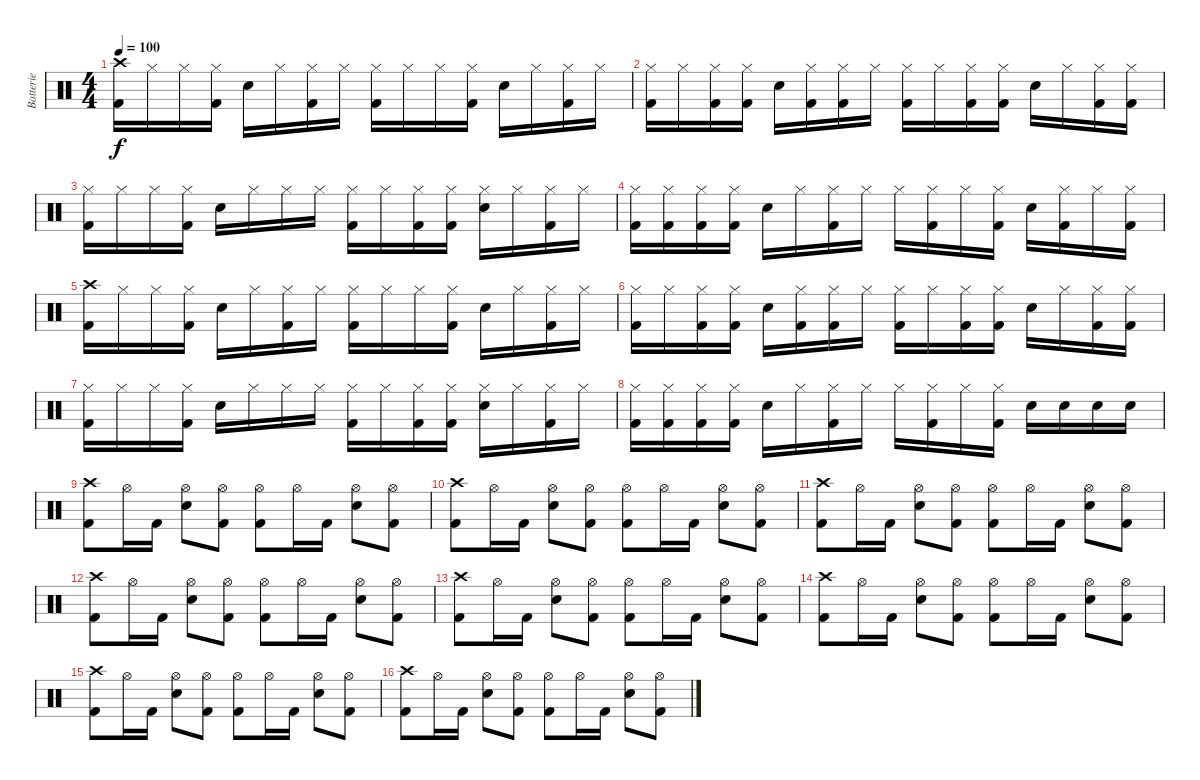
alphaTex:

\track ("Batterie" "Batterie") {instrument percussion}
\staff {score}
\articulation defaults
\ts (4 4)
\tempo 100
\clef neutral
\ks c
("Crash high (hit)" "Kick (hit) 2").16{dy f} "Hi-Hat (closed)".16 "Hi-Hat (closed)".16 ("Hi-Hat (closed)" "Kick (hit) 2").16 "Snare (hit) 2".16 "Hi-Hat (closed)".16 ("Hi-Hat (closed)" "Kick (hit) 2").16 "Hi-Hat (closed)".16 ("Hi-Hat (closed)" "Kick (hit) 2").16 "Hi-Hat (closed)".16 "Hi-Hat (closed)".16 ("Hi-Hat (closed)" "Kick (hit) 2").16 "Snare (hit) 2".16 "Hi-Hat (closed)".16 ("Hi-Hat (closed)" "Kick (hit) 2").16 "Hi-Hat (closed)".16 |
("Hi-Hat (closed)" "Kick (hit) 2").16 "Hi-Hat (closed)".16 ("Hi-Hat (closed)" "Kick (hit) 2").16 ("Hi-Hat (closed)" "Kick (hit) 2").16 "Snare (hit) 2".16 ("Hi-Hat (closed)" "Kick (hit) 2").16 ("Hi-Hat (closed)" "Kick (hit) 2").16 "Hi-Hat (closed)".16 ("Hi-Hat (closed)" "Kick (hit) 2").16 "Hi-Hat (closed)".16 ("Hi-Hat (closed)" "Kick (hit) 2").16 ("Hi-Hat (closed)" "Kick (hit) 2").16 "Snare (hit) 2".16 "Hi-Hat (closed)".16 ("Hi-Hat (closed)" "Kick (hit) 2").16 ("Hi-Hat (closed)" "Kick (hit) 2").16 |
("Hi-Hat (closed)" "Kick (hit) 2").16 "Hi-Hat (closed)".16 "Hi-Hat (closed)".16 ("Hi-Hat (closed)" "Kick (hit) 2").16 "Snare (hit) 2".16 "Hi-Hat (closed)".16 "Hi-Hat (closed)".16 "Hi-Hat (closed)".16 ("Hi-Hat (closed)" "Kick (hit) 2").16 "Hi-Hat (closed)".16 ("Hi-Hat (closed)" "Kick (hit) 2").16 ("Hi-Hat (closed)" "Kick (hit) 2").16 ("Hi-Hat (closed)" "Snare (hit) 2").16 "Hi-Hat (closed)".16 ("Hi-Hat (closed)" "Kick (hit) 2").16 "Hi-Hat (closed)".16 |
("Hi-Hat (closed)" "Kick (hit) 2").16 ("Hi-Hat (closed)" "Kick (hit) 2").16 ("Hi-Hat (closed)" "Kick (hit) 2").16 ("Hi-Hat (closed)" "Kick (hit) 2").16 "Snare (hit) 2".16 "Hi-Hat (closed)".16 ("Hi-Hat (closed)" "Kick (hit) 2").16 "Hi-Hat (closed)".16 "Hi-Hat (closed)".16 ("Hi-Hat (closed)" "Kick (hit) 2").16 "Hi-Hat (closed)".16 ("Hi-Hat (closed)" "Kick (hit) 2").16 "Snare (hit) 2".16 ("Hi-Hat (closed)" "Kick (hit) 2").16 "Hi-Hat (closed)".16 ("Hi-Hat (closed)" "Kick (hit) 2").16 |
("Crash high (hit)" "Kick (hit) 2").16 "Hi-Hat (closed)".16 "Hi-Hat (closed)".16 ("Hi-Hat (closed)" "Kick (hit) 2").16 "Snare (hit) 2".16 "Hi-Hat (closed)".16 ("Hi-Hat (closed)" "Kick (hit) 2").16 "Hi-Hat (closed)".16 ("Hi-Hat (closed)" "Kick (hit) 2").16 "Hi-Hat (closed)".16 "Hi-Hat (closed)".16 ("Hi-Hat (closed)" "Kick (hit) 2").16 "Snare (hit) 2".16 "Hi-Hat (closed)".16 ("Hi-Hat (closed)" "Kick (hit) 2").16 "Hi-Hat (closed)".16 |
("Hi-Hat (closed)" "Kick (hit) 2").16 "Hi-Hat (closed)".16 ("Hi-Hat (closed)" "Kick (hit) 2").16 ("Hi-Hat (closed)" "Kick (hit) 2").16 "Snare (hit) 2".16 ("Hi-Hat (closed)" "Kick (hit) 2").16 ("Hi-Hat (closed)" "Kick (hit) 2").16 "Hi-Hat (closed)".16 ("Hi-Hat (closed)" "Kick (hit) 2").16 "Hi-Hat (closed)".16 ("Hi-Hat (closed)" "Kick (hit) 2").16 ("Hi-Hat (closed)" "Kick (hit) 2").16 "Snare (hit) 2".16 "Hi-Hat (closed)".16 ("Hi-Hat (closed)" "Kick (hit) 2").16 ("Hi-Hat (closed)" "Kick (hit) 2").16 |
("Hi-Hat (closed)" "Kick (hit) 2").16 "Hi-Hat (closed)".16 "Hi-Hat (closed)".16 ("Hi-Hat (closed)" "Kick (hit) 2").16 "Snare (hit) 2".16 "Hi-Hat (closed)".16 "Hi-Hat (closed)".16 "Hi-Hat (closed)".16 ("Hi-Hat (closed)" "Kick (hit) 2").16 "Hi-Hat (closed)".16 ("Hi-Hat (closed)" "Kick (hit) 2").16 ("Hi-Hat (closed)" "Kick (hit) 2").16 ("Hi-Hat (closed)" "Snare (hit) 2").16 "Hi-Hat (closed)".16 ("Hi-Hat (closed)" "Kick (hit) 2").16 "Hi-Hat (closed)".16 |
("Hi-Hat (closed)" "Kick (hit) 2").16 ("Hi-Hat (closed)" "Kick (hit) 2").16 ("Hi-Hat (closed)" "Kick (hit) 2").16 ("Hi-Hat (closed)" "Kick (hit) 2").16 "Snare (hit) 2".16 "Hi-Hat (closed)".16 ("Hi-Hat (closed)" "Kick (hit) 2").16 "Hi-Hat (closed)".16 "Hi-Hat (closed)".16 ("Hi-Hat (closed)" "Kick (hit) 2").16 "Hi-Hat (closed)".16 ("Hi-Hat (closed)" "Kick (hit) 2").16 "Snare (hit) 2".16 "Snare (hit) 2".16 "Snare (hit) 2".16 "Snare (hit) 2".16 |
("Crash high (hit)" "Kick (hit) 2").8 "Hi-Hat (open)".16 "Kick (hit) 2".16 ("Hi-Hat (open)" "Snare (hit) 2").8 ("Hi-Hat (open)" "Kick (hit) 2").8 ("Hi-Hat (open)" "Kick (hit) 2").8 "Hi-Hat (open)".16 "Kick (hit) 2".16 ("Hi-Hat (open)" "Snare (hit) 2").8 ("Hi-Hat (open)" "Kick (hit) 2").8 |
("Crash high (hit)" "Kick (hit) 2").8 "Hi-Hat (open)".16 "Kick (hit) 2".16 ("Hi-Hat (open)" "Snare (hit) 2").8 ("Hi-Hat (open)" "Kick (hit) 2").8 ("Hi-Hat (open)" "Kick (hit) 2").8 "Hi-Hat (open)".16 "Kick (hit) 2".16 ("Hi-Hat (open)" "Snare (hit) 2").8 ("Hi-Hat (open)" "Kick (hit) 2").8 |
("Crash high (hit)" "Kick (hit) 2").8 "Hi-Hat (open)".16 "Kick (hit) 2".16 ("Hi-Hat (open)" "Snare (hit) 2").8 ("Hi-Hat (open)" "Kick (hit) 2").8 ("Hi-Hat (open)" "Kick (hit) 2").8 "Hi-Hat (open)".16 "Kick (hit) 2".16 ("Hi-Hat (open)" "Snare (hit) 2").8 ("Hi-Hat (open)" "Kick (hit) 2").8 |
("Crash high (hit)" "Kick (hit) 2").8 "Hi-Hat (open)".16 "Kick (hit) 2".16 ("Hi-Hat (open)" "Snare (hit) 2").8 ("Hi-Hat (open)" "Kick (hit) 2").8 ("Hi-Hat (open)" "Kick (hit) 2").8 "Hi-Hat (open)".16 "Kick (hit) 2".16 ("Hi-Hat (open)" "Snare (hit) 2").8 ("Hi-Hat (open)" "Kick (hit) 2").8 |
("Crash high (hit)" "Kick (hit) 2").8 "Hi-Hat (open)".16 "Kick (hit) 2".16 ("Hi-Hat (open)" "Snare (hit) 2").8 ("Hi-Hat (open)" "Kick (hit) 2").8 ("Hi-Hat (open)" "Kick (hit) 2").8 "Hi-Hat (open)".16 "Kick (hit) 2".16 ("Hi-Hat (open)" "Snare (hit) 2").8 ("Hi-Hat (open)" "Kick (hit) 2").8 |
("Crash high (hit)" "Kick (hit) 2").8 "Hi-Hat (open)".16 "Kick (hit) 2".16 ("Hi-Hat (open)" "Snare (hit) 2").8 ("Hi-Hat (open)" "Kick (hit) 2").8 ("Hi-Hat (open)" "Kick (hit) 2").8 "Hi-Hat (open)".16 "Kick (hit) 2".16 ("Hi-Hat (open)" "Snare (hit) 2").8 ("Hi-Hat (open)" "Kick (hit) 2").8 |
("Crash high (hit)" "Kick (hit) 2").8 "Hi-Hat (open)".16 "Kick (hit) 2".16 ("Hi-Hat (open)" "Snare (hit) 2").8 ("Hi-Hat (open)" "Kick (hit) 2").8 ("Hi-Hat (open)" "Kick (hit) 2").8 "Hi-Hat (open)".16 "Kick (hit) 2".16 ("Hi-Hat (open)" "Snare (hit) 2").8 ("Hi-Hat (open)" "Kick (hit) 2").8 |
("Crash high (hit)" "Kick (hit) 2").8 "Hi-Hat (open)".16 "Kick (hit) 2".16 ("Hi-Hat (open)" "Snare (hit) 2").8 ("Hi-Hat (open)" "Kick (hit) 2").8 ("Hi-Hat (open)" "Kick (hit) 2").8 "Hi-Hat (open)".16 "Kick (hit) 2".16 ("Hi-Hat (open)" "Snare (hit) 2").8 ("Hi-Hat (open)" "Kick (hit) 2").8
